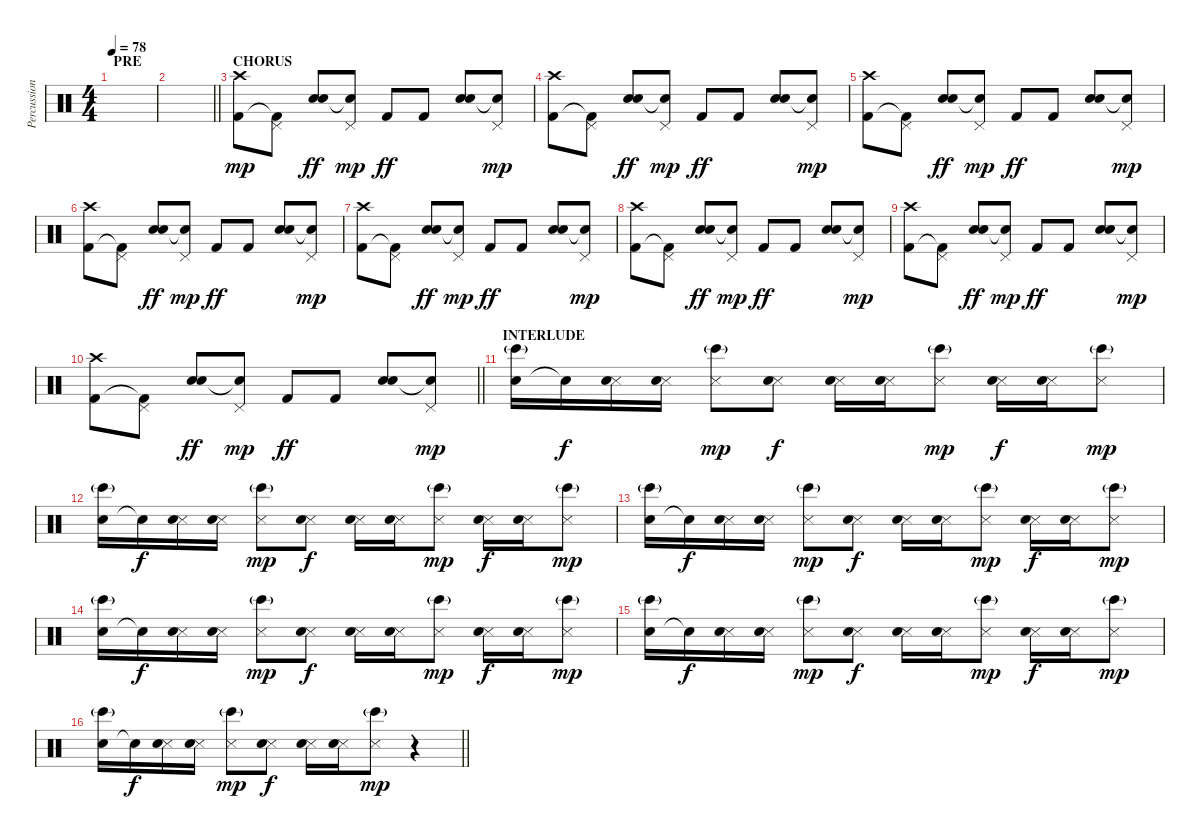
\track ("Percussion" "Percussion") {instrument percussion}
\staff {score}
\articulation defaults
\ts (4 4)
\section ("" "PRE")
\tempo 78
\clef neutral
\ks c
|
\barLineRight lightlight
|
\section ("" "CHORUS")
("Kick (hit) 2" "Crash high (hit)").8{dy mp} ("Kick (hit) 2"{t} "Pedal Hi-Hat (hit)").8 ("Snare (hit) 2" "Electric Snare (hit)").8{dy ff} ("Snare (hit)"{t} "Pedal Hi-Hat (hit)").8{dy mp} "Kick (hit) 2".8{dy ff} "Kick (hit) 2".8 ("Snare (hit) 2" "Electric Snare (hit)").8 ("Snare (hit)"{t} "Pedal Hi-Hat (hit)").8{dy mp} |
("Kick (hit) 2" "Crash high (hit)").8 ("Kick (hit) 2"{t} "Pedal Hi-Hat (hit)").8 ("Snare (hit) 2" "Electric Snare (hit)").8{dy ff} ("Snare (hit)"{t} "Pedal Hi-Hat (hit)").8{dy mp} "Kick (hit) 2".8{dy ff} "Kick (hit) 2".8 ("Snare (hit) 2" "Electric Snare (hit)").8 ("Snare (hit)"{t} "Pedal Hi-Hat (hit)").8{dy mp} |
("Kick (hit) 2" "Crash high (hit)").8 ("Kick (hit) 2"{t} "Pedal Hi-Hat (hit)").8 ("Snare (hit) 2" "Electric Snare (hit)").8{dy ff} ("Snare (hit)"{t} "Pedal Hi-Hat (hit)").8{dy mp} "Kick (hit) 2".8{dy ff} "Kick (hit) 2".8 ("Snare (hit) 2" "Electric Snare (hit)").8 ("Snare (hit)"{t} "Pedal Hi-Hat (hit)").8{dy mp} |
("Kick (hit) 2" "Crash high (hit)").8 ("Kick (hit) 2"{t} "Pedal Hi-Hat (hit)").8 ("Snare (hit) 2" "Electric Snare (hit)").8{dy ff} ("Snare (hit)"{t} "Pedal Hi-Hat (hit)").8{dy mp} "Kick (hit) 2".8{dy ff} "Kick (hit) 2".8 ("Snare (hit) 2" "Electric Snare (hit)").8 ("Snare (hit)"{t} "Pedal Hi-Hat (hit)").8{dy mp} |
("Kick (hit) 2" "Crash high (hit)").8 ("Kick (hit) 2"{t} "Pedal Hi-Hat (hit)").8 ("Snare (hit) 2" "Electric Snare (hit)").8{dy ff} ("Snare (hit)"{t} "Pedal Hi-Hat (hit)").8{dy mp} "Kick (hit) 2".8{dy ff} "Kick (hit) 2".8 ("Snare (hit) 2" "Electric Snare (hit)").8 ("Snare (hit)"{t} "Pedal Hi-Hat (hit)").8{dy mp} |
("Kick (hit) 2" "Crash high (hit)").8 ("Kick (hit) 2"{t} "Pedal Hi-Hat (hit)").8 ("Snare (hit) 2" "Electric Snare (hit)").8{dy ff} ("Snare (hit)"{t} "Pedal Hi-Hat (hit)").8{dy mp} "Kick (hit) 2".8{dy ff} "Kick (hit) 2".8 ("Snare (hit) 2" "Electric Snare (hit)").8 ("Snare (hit)"{t} "Pedal Hi-Hat (hit)").8{dy mp} |
("Kick (hit) 2" "Crash high (hit)").8 ("Kick (hit) 2"{t} "Pedal Hi-Hat (hit)").8 ("Snare (hit) 2" "Electric Snare (hit)").8{dy ff} ("Snare (hit)"{t} "Pedal Hi-Hat (hit)").8{dy mp} "Kick (hit) 2".8{dy ff} "Kick (hit) 2".8 ("Snare (hit) 2" "Electric Snare (hit)").8 ("Snare (hit)"{t} "Pedal Hi-Hat (hit)").8{dy mp} |
\barLineRight lightlight
("Kick (hit) 2" "Crash high (hit)").8 ("Kick (hit) 2"{t} "Pedal Hi-Hat (hit)").8 ("Snare (hit) 2" "Electric Snare (hit)").8{dy ff} ("Snare (hit)"{t} "Pedal Hi-Hat (hit)").8{dy mp} "Kick (hit) 2".8{dy ff} "Kick (hit) 2".8 ("Snare (hit) 2" "Electric Snare (hit)").8 ("Snare (hit)"{t} "Pedal Hi-Hat (hit)").8{dy mp} |
\section ("" "INTERLUDE")
("Hand Clap (hit)" "Bongo High (hit)"{g}).16 "Snare (hit)"{t}.16{dy f} ("Snare (side stick) 3" "Hand Clap (hit)").16 ("Snare (side stick) 3" "Hand Clap (hit)").16 ("Snare (side stick) 3" "Bongo High (hit)"{g}).8{dy mp} ("Snare (side stick) 3" "Hand Clap (hit)").8{dy f} ("Snare (side stick) 3" "Hand Clap (hit)").16 ("Snare (side stick) 3" "Hand Clap (hit)").16 ("Snare (side stick) 3" "Bongo High (hit)"{g}).8{dy mp} ("Snare (side stick) 3" "Hand Clap (hit)").16{dy f} ("Snare (side stick) 3" "Hand Clap (hit)").16 ("Snare (side stick) 3" "Bongo High (hit)"{g}).8{dy mp} |
("Hand Clap (hit)" "Bongo High (hit)"{g}).16 "Snare (hit)"{t}.16{dy f} ("Snare (side stick) 3" "Hand Clap (hit)").16 ("Snare (side stick) 3" "Hand Clap (hit)").16 ("Snare (side stick) 3" "Bongo High (hit)"{g}).8{dy mp} ("Snare (side stick) 3" "Hand Clap (hit)").8{dy f} ("Snare (side stick) 3" "Hand Clap (hit)").16 ("Snare (side stick) 3" "Hand Clap (hit)").16 ("Snare (side stick) 3" "Bongo High (hit)"{g}).8{dy mp} ("Snare (side stick) 3" "Hand Clap (hit)").16{dy f} ("Snare (side stick) 3" "Hand Clap (hit)").16 ("Snare (side stick) 3" "Bongo High (hit)"{g}).8{dy mp} |
("Hand Clap (hit)" "Bongo High (hit)"{g}).16 "Snare (hit)"{t}.16{dy f} ("Snare (side stick) 3" "Hand Clap (hit)").16 ("Snare (side stick) 3" "Hand Clap (hit)").16 ("Snare (side stick) 3" "Bongo High (hit)"{g}).8{dy mp} ("Snare (side stick) 3" "Hand Clap (hit)").8{dy f} ("Snare (side stick) 3" "Hand Clap (hit)").16 ("Snare (side stick) 3" "Hand Clap (hit)").16 ("Snare (side stick) 3" "Bongo High (hit)"{g}).8{dy mp} ("Snare (side stick) 3" "Hand Clap (hit)").16{dy f} ("Snare (side stick) 3" "Hand Clap (hit)").16 ("Snare (side stick) 3" "Bongo High (hit)"{g}).8{dy mp} |
("Hand Clap (hit)" "Bongo High (hit)"{g}).16 "Snare (hit)"{t}.16{dy f} ("Snare (side stick) 3" "Hand Clap (hit)").16 ("Snare (side stick) 3" "Hand Clap (hit)").16 ("Snare (side stick) 3" "Bongo High (hit)"{g}).8{dy mp} ("Snare (side stick) 3" "Hand Clap (hit)").8{dy f} ("Snare (side stick) 3" "Hand Clap (hit)").16 ("Snare (side stick) 3" "Hand Clap (hit)").16 ("Snare (side stick) 3" "Bongo High (hit)"{g}).8{dy mp} ("Snare (side stick) 3" "Hand Clap (hit)").16{dy f} ("Snare (side stick) 3" "Hand Clap (hit)").16 ("Snare (side stick) 3" "Bongo High (hit)"{g}).8{dy mp} |
("Hand Clap (hit)" "Bongo High (hit)"{g}).16 "Snare (hit)"{t}.16{dy f} ("Snare (side stick) 3" "Hand Clap (hit)").16 ("Snare (side stick) 3" "Hand Clap (hit)").16 ("Snare (side stick) 3" "Bongo High (hit)"{g}).8{dy mp} ("Snare (side stick) 3" "Hand Clap (hit)").8{dy f} ("Snare (side stick) 3" "Hand Clap (hit)").16 ("Snare (side stick) 3" "Hand Clap (hit)").16 ("Snare (side stick) 3" "Bongo High (hit)"{g}).8{dy mp} ("Snare (side stick) 3" "Hand Clap (hit)").16{dy f} ("Snare (side stick) 3" "Hand Clap (hit)").16 ("Snare (side stick) 3" "Bongo High (hit)"{g}).8{dy mp} |
\barLineRight lightlight
("Hand Clap (hit)" "Bongo High (hit)"{g}).16 "Snare (hit)"{t}.16{dy f} ("Snare (side stick) 3" "Hand Clap (hit)").16 ("Snare (side stick) 3" "Hand Clap (hit)").16 ("Snare (side stick) 3" "Bongo High (hit)"{g}).8{dy mp} ("Snare (side stick) 3" "Hand Clap (hit)").8{dy f} ("Snare (side stick) 3" "Hand Clap (hit)").16 ("Snare (side stick) 3" "Hand Clap (hit)").16 ("Snare (side stick) 3" "Bongo High (hit)"{g}).8{dy mp} r.4
